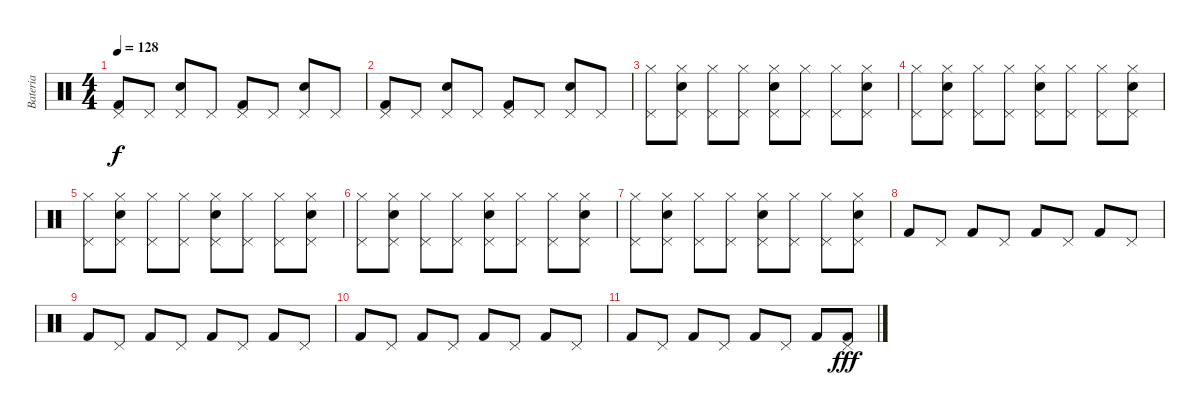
\track ("Bateria" "Bateria") {instrument percussion}
\staff {score}
\articulation defaults
\ts (4 4)
\tempo 128
\clef neutral
\ks c
("Pedal Hi-Hat (hit)" "Kick (hit) 2").8{dy f} "Pedal Hi-Hat (hit)".8 ("Pedal Hi-Hat (hit)" "Electric Snare (hit)").8 "Pedal Hi-Hat (hit)".8 ("Pedal Hi-Hat (hit)" "Kick (hit) 2").8 "Pedal Hi-Hat (hit)".8 ("Pedal Hi-Hat (hit)" "Electric Snare (hit)").8 "Pedal Hi-Hat (hit)".8 |
("Pedal Hi-Hat (hit)" "Kick (hit) 2").8 "Pedal Hi-Hat (hit)".8 ("Pedal Hi-Hat (hit)" "Electric Snare (hit)").8 "Pedal Hi-Hat (hit)".8 ("Pedal Hi-Hat (hit)" "Kick (hit) 2").8 "Pedal Hi-Hat (hit)".8 ("Pedal Hi-Hat (hit)" "Electric Snare (hit)").8 "Pedal Hi-Hat (hit)".8 |
("Pedal Hi-Hat (hit)" "Hi-Hat (closed)").8 ("Pedal Hi-Hat (hit)" "Electric Snare (hit)" "Hi-Hat (closed)").8 ("Pedal Hi-Hat (hit)" "Hi-Hat (closed)").8 ("Pedal Hi-Hat (hit)" "Hi-Hat (closed)").8 ("Pedal Hi-Hat (hit)" "Electric Snare (hit)" "Hi-Hat (closed)").8 ("Pedal Hi-Hat (hit)" "Hi-Hat (closed)").8 ("Pedal Hi-Hat (hit)" "Hi-Hat (closed)").8 ("Pedal Hi-Hat (hit)" "Electric Snare (hit)" "Hi-Hat (closed)").8 |
("Pedal Hi-Hat (hit)" "Hi-Hat (closed)").8 ("Pedal Hi-Hat (hit)" "Electric Snare (hit)" "Hi-Hat (closed)").8 ("Pedal Hi-Hat (hit)" "Hi-Hat (closed)").8 ("Pedal Hi-Hat (hit)" "Hi-Hat (closed)").8 ("Pedal Hi-Hat (hit)" "Electric Snare (hit)" "Hi-Hat (closed)").8 ("Pedal Hi-Hat (hit)" "Hi-Hat (closed)").8 ("Pedal Hi-Hat (hit)" "Hi-Hat (closed)").8 ("Pedal Hi-Hat (hit)" "Electric Snare (hit)" "Hi-Hat (closed)").8 |
("Pedal Hi-Hat (hit)" "Hi-Hat (closed)").8 ("Pedal Hi-Hat (hit)" "Electric Snare (hit)" "Hi-Hat (closed)").8 ("Pedal Hi-Hat (hit)" "Hi-Hat (closed)").8 ("Pedal Hi-Hat (hit)" "Hi-Hat (closed)").8 ("Pedal Hi-Hat (hit)" "Electric Snare (hit)" "Hi-Hat (closed)").8 ("Pedal Hi-Hat (hit)" "Hi-Hat (closed)").8 ("Pedal Hi-Hat (hit)" "Hi-Hat (closed)").8 ("Pedal Hi-Hat (hit)" "Electric Snare (hit)" "Hi-Hat (closed)").8 |
("Pedal Hi-Hat (hit)" "Hi-Hat (closed)").8 ("Pedal Hi-Hat (hit)" "Electric Snare (hit)" "Hi-Hat (closed)").8 ("Pedal Hi-Hat (hit)" "Hi-Hat (closed)").8 ("Pedal Hi-Hat (hit)" "Hi-Hat (closed)").8 ("Pedal Hi-Hat (hit)" "Electric Snare (hit)" "Hi-Hat (closed)").8 ("Pedal Hi-Hat (hit)" "Hi-Hat (closed)").8 ("Pedal Hi-Hat (hit)" "Hi-Hat (closed)").8 ("Pedal Hi-Hat (hit)" "Electric Snare (hit)" "Hi-Hat (closed)").8 |
("Pedal Hi-Hat (hit)" "Hi-Hat (closed)").8 ("Pedal Hi-Hat (hit)" "Electric Snare (hit)" "Hi-Hat (closed)").8 ("Pedal Hi-Hat (hit)" "Hi-Hat (closed)").8 ("Pedal Hi-Hat (hit)" "Hi-Hat (closed)").8 ("Pedal Hi-Hat (hit)" "Electric Snare (hit)" "Hi-Hat (closed)").8 ("Pedal Hi-Hat (hit)" "Hi-Hat (closed)").8 ("Pedal Hi-Hat (hit)" "Hi-Hat (closed)").8 ("Pedal Hi-Hat (hit)" "Electric Snare (hit)" "Hi-Hat (closed)").8 |
"Kick (hit) 2".8 "Pedal Hi-Hat (hit)".8 "Kick (hit) 2".8 "Pedal Hi-Hat (hit)".8 "Kick (hit) 2".8 "Pedal Hi-Hat (hit)".8 "Kick (hit) 2".8 "Pedal Hi-Hat (hit)".8 |
"Kick (hit) 2".8 "Pedal Hi-Hat (hit)".8 "Kick (hit) 2".8 "Pedal Hi-Hat (hit)".8 "Kick (hit) 2".8 "Pedal Hi-Hat (hit)".8 "Kick (hit) 2".8 "Pedal Hi-Hat (hit)".8 |
"Kick (hit) 2".8 "Pedal Hi-Hat (hit)".8 "Kick (hit) 2".8 "Pedal Hi-Hat (hit)".8 "Kick (hit) 2".8 "Pedal Hi-Hat (hit)".8 "Kick (hit) 2".8 "Pedal Hi-Hat (hit)".8 |
"Kick (hit) 2".8 "Pedal Hi-Hat (hit)".8 "Kick (hit) 2".8 "Pedal Hi-Hat (hit)".8 "Kick (hit) 2".8 "Pedal Hi-Hat (hit)".8 "Kick (hit) 2".8 ("Pedal Hi-Hat (hit)" "Kick (hit) 2").8{dy fff}
